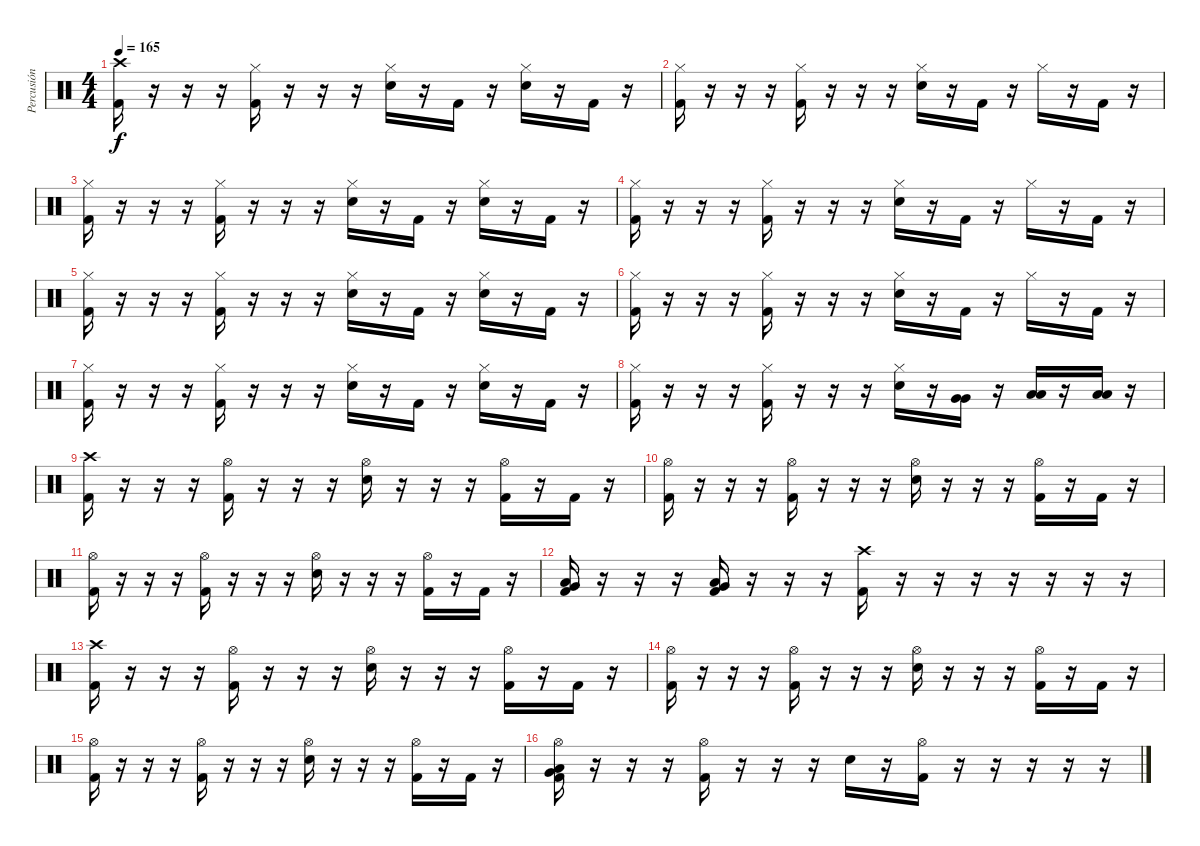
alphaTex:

\track ("Percusión" "Percusión") {instrument percussion}
\staff {score}
\articulation defaults
\ts (4 4)
\tempo 165
\clef neutral
\ks c
("Crash high (hit)" "Kick (hit) 2").16{dy f} r.16 r.16 r.16 ("Hi-Hat (closed)" "Kick (hit) 2").16 r.16 r.16 r.16 ("Hi-Hat (closed)" "Electric Snare (hit)").16 r.16 "Kick (hit) 2".16 r.16 ("Hi-Hat (closed)" "Electric Snare (hit)").16 r.16 "Kick (hit) 2".16 r.16 |
("Hi-Hat (closed)" "Kick (hit) 2").16 r.16 r.16 r.16 ("Hi-Hat (closed)" "Kick (hit) 2").16 r.16 r.16 r.16 ("Hi-Hat (closed)" "Electric Snare (hit)").16 r.16 "Kick (hit) 2".16 r.16 "Hi-Hat (closed)".16 r.16 "Kick (hit) 2".16 r.16 |
("Hi-Hat (closed)" "Kick (hit) 2").16 r.16 r.16 r.16 ("Hi-Hat (closed)" "Kick (hit) 2").16 r.16 r.16 r.16 ("Hi-Hat (closed)" "Electric Snare (hit)").16 r.16 "Kick (hit) 2".16 r.16 ("Hi-Hat (closed)" "Electric Snare (hit)").16 r.16 "Kick (hit) 2".16 r.16 |
("Hi-Hat (closed)" "Kick (hit) 2").16 r.16 r.16 r.16 ("Hi-Hat (closed)" "Kick (hit) 2").16 r.16 r.16 r.16 ("Hi-Hat (closed)" "Electric Snare (hit)").16 r.16 "Kick (hit) 2".16 r.16 "Hi-Hat (closed)".16 r.16 "Kick (hit) 2".16 r.16 |
("Hi-Hat (closed)" "Kick (hit) 2").16 r.16 r.16 r.16 ("Hi-Hat (closed)" "Kick (hit) 2").16 r.16 r.16 r.16 ("Hi-Hat (closed)" "Electric Snare (hit)").16 r.16 "Kick (hit) 2".16 r.16 ("Hi-Hat (closed)" "Electric Snare (hit)").16 r.16 "Kick (hit) 2".16 r.16 |
("Hi-Hat (closed)" "Kick (hit) 2").16 r.16 r.16 r.16 ("Hi-Hat (closed)" "Kick (hit) 2").16 r.16 r.16 r.16 ("Hi-Hat (closed)" "Electric Snare (hit)").16 r.16 "Kick (hit) 2".16 r.16 "Hi-Hat (closed)".16 r.16 "Kick (hit) 2".16 r.16 |
("Hi-Hat (closed)" "Kick (hit) 2").16 r.16 r.16 r.16 ("Hi-Hat (closed)" "Kick (hit) 2").16 r.16 r.16 r.16 ("Hi-Hat (closed)" "Electric Snare (hit)").16 r.16 "Kick (hit) 2".16 r.16 ("Hi-Hat (closed)" "Electric Snare (hit)").16 r.16 "Kick (hit) 2".16 r.16 |
("Hi-Hat (closed)" "Kick (hit) 2").16 r.16 r.16 r.16 ("Hi-Hat (closed)" "Kick (hit) 2").16 r.16 r.16 r.16 ("Hi-Hat (closed)" "Electric Snare (hit)").16 r.16 ("Very Low Tom (hit)" "Very Low Tom (hit)").16 r.16 ("Low Floor Tom (hit)" "Low Floor Tom (hit)").16 r.16 ("Low Floor Tom (hit)" "Low Floor Tom (hit)").16 r.16 |
("Crash high (hit)" "Kick (hit) 2").16 r.16 r.16 r.16 ("Hi-Hat (open)" "Kick (hit) 2").16 r.16 r.16 r.16 ("Hi-Hat (open)" "Electric Snare (hit)").16 r.16 r.16 r.16 ("Hi-Hat (open)" "Kick (hit) 2").16 r.16 "Kick (hit) 2".16 r.16 |
("Hi-Hat (open)" "Kick (hit) 2").16 r.16 r.16 r.16 ("Hi-Hat (open)" "Kick (hit) 2").16 r.16 r.16 r.16 ("Hi-Hat (open)" "Electric Snare (hit)").16 r.16 r.16 r.16 ("Hi-Hat (open)" "Kick (hit) 2").16 r.16 "Kick (hit) 2".16 r.16 |
("Hi-Hat (open)" "Kick (hit) 2").16 r.16 r.16 r.16 ("Hi-Hat (open)" "Kick (hit) 2").16 r.16 r.16 r.16 ("Hi-Hat (open)" "Electric Snare (hit)").16 r.16 r.16 r.16 ("Hi-Hat (open)" "Kick (hit) 2").16 r.16 "Kick (hit) 2".16 r.16 |
("Low Floor Tom (hit)" "Very Low Tom (hit)" "Kick (hit) 2").16 r.16 r.16 r.16 ("Low Floor Tom (hit)" "Very Low Tom (hit)" "Kick (hit) 2").16 r.16 r.16 r.16 ("Crash high (hit)" "Kick (hit) 2").16 r.16 r.16 r.16 r.16 r.16 r.16 r.16 |
("Crash high (hit)" "Kick (hit) 2").16 r.16 r.16 r.16 ("Hi-Hat (open)" "Kick (hit) 2").16 r.16 r.16 r.16 ("Hi-Hat (open)" "Electric Snare (hit)").16 r.16 r.16 r.16 ("Hi-Hat (open)" "Kick (hit) 2").16 r.16 "Kick (hit) 2".16 r.16 |
("Hi-Hat (open)" "Kick (hit) 2").16 r.16 r.16 r.16 ("Hi-Hat (open)" "Kick (hit) 2").16 r.16 r.16 r.16 ("Hi-Hat (open)" "Electric Snare (hit)").16 r.16 r.16 r.16 ("Hi-Hat (open)" "Kick (hit) 2").16 r.16 "Kick (hit) 2".16 r.16 |
("Hi-Hat (open)" "Kick (hit) 2").16 r.16 r.16 r.16 ("Hi-Hat (open)" "Kick (hit) 2").16 r.16 r.16 r.16 ("Hi-Hat (open)" "Electric Snare (hit)").16 r.16 r.16 r.16 ("Hi-Hat (open)" "Kick (hit) 2").16 r.16 "Kick (hit) 2".16 r.16 |
("Hi-Hat (open)" "Low Floor Tom (hit)" "Very Low Tom (hit)" "Kick (hit) 2").16 r.16 r.16 r.16 ("Hi-Hat (open)" "Kick (hit) 2").16 r.16 r.16 r.16 "Electric Snare (hit)".16 r.16 ("Hi-Hat (open)" "Kick (hit) 2").16 r.16 r.16 r.16 r.16 r.16
